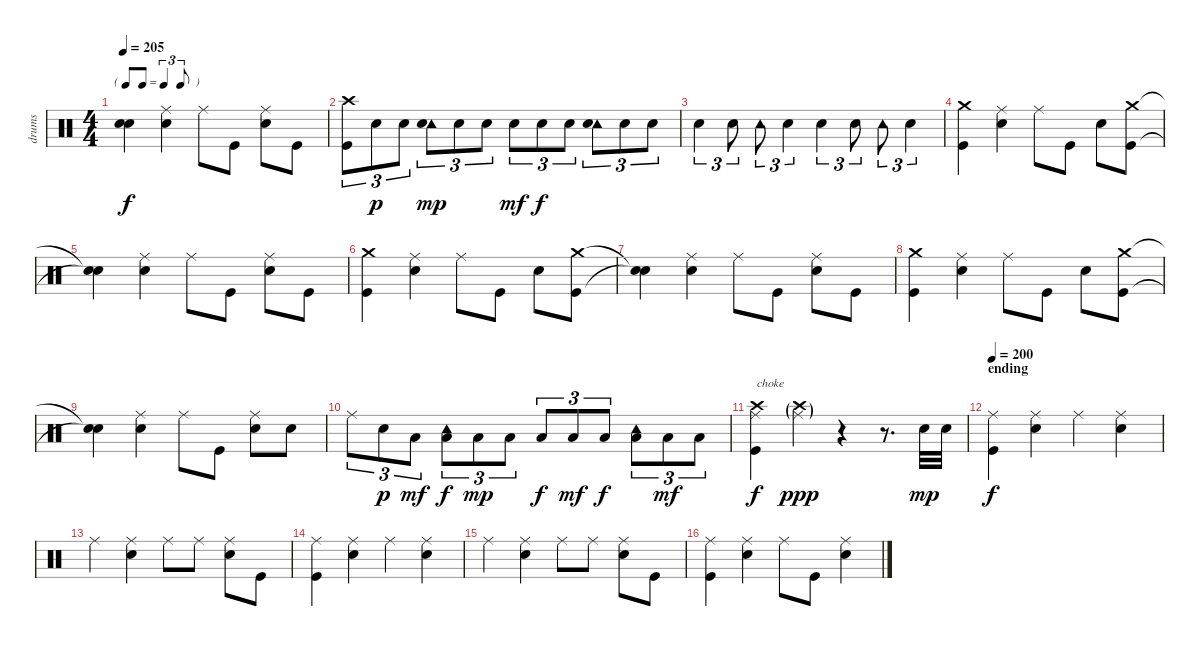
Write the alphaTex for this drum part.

\track ("drums" "drums") {instrument percussion}
\staff {score}
\articulation defaults
\ts (4 4)
\tf triplet8th
\tempo 205
\clef neutral
\ks c
("Snare (hit)"{t} "Snare (hit)"{t}).4{dy f} ("Ride (middle)" "Snare (hit) 2").4 "Ride (middle)".8 "Kick (hit)".8 ("Ride (middle)" "Snare (hit) 2").8 "Kick (hit)".8 |
("Crash high (hit)" "Kick (hit)").8{tu (3 2)} "Snare (hit) 2".8{tu (3 2) dy p} "Snare (hit) 2".8{tu (3 2)} ("Tambourine (hit)" "Snare (hit) 2").8{tu (3 2) dy mp} "Snare (hit) 2".8{tu (3 2)} "Snare (hit) 2".8{tu (3 2)} "Snare (hit) 2".8{tu (3 2) dy mf} "Snare (hit) 2".8{tu (3 2) dy f} "Snare (hit) 2".8{tu (3 2)} ("Tambourine (hit)" "Snare (hit) 2").8{tu (3 2)} "Snare (hit) 2".8{tu (3 2)} "Snare (hit) 2".8{tu (3 2)} |
"Snare (hit) 2".4{tu (3 2)} "Snare (hit) 2".8{tu (3 2)} "Tambourine (hit)".8{tu (3 2)} "Snare (hit) 2".4{tu (3 2)} "Snare (hit) 2".4{tu (3 2)} "Snare (hit) 2".8{tu (3 2)} "Tambourine (hit)".8{tu (3 2)} "Snare (hit) 2".4{tu (3 2)} |
("Crash medium (hit)" "Kick (hit)").4 ("Ride (middle)" "Snare (hit) 2").4 "Ride (middle)".8 "Kick (hit)".8 "Snare (hit) 2".8 ("Crash medium (hit)" "Kick (hit)").8 |
("Snare (hit)"{t} "Snare (hit)"{t}).4 ("Ride (middle)" "Snare (hit) 2").4 "Ride (middle)".8 "Kick (hit)".8 ("Ride (middle)" "Snare (hit) 2").8 "Kick (hit)".8 |
("Crash medium (hit)" "Kick (hit)").4 ("Ride (middle)" "Snare (hit) 2").4 "Ride (middle)".8 "Kick (hit)".8 "Snare (hit) 2".8 ("Crash medium (hit)" "Kick (hit)").8 |
("Snare (hit)"{t} "Snare (hit)"{t}).4 ("Ride (middle)" "Snare (hit) 2").4 "Ride (middle)".8 "Kick (hit)".8 ("Ride (middle)" "Snare (hit) 2").8 "Kick (hit)".8 |
("Crash medium (hit)" "Kick (hit)").4 ("Ride (middle)" "Snare (hit) 2").4 "Ride (middle)".8 "Kick (hit)".8 "Snare (hit) 2".8 ("Crash medium (hit)" "Kick (hit)").8 |
("Snare (hit)"{t} "Snare (hit)"{t}).4 ("Ride (middle)" "Snare (hit) 2").4 "Ride (middle)".8 "Kick (hit)".8 ("Ride (middle)" "Snare (hit) 2").8 "Snare (hit) 2".8 |
"Ride (middle)".8{tu (3 2)} "Snare (hit) 2".8{tu (3 2) dy p} "Low Tom (hit)".8{tu (3 2) dy mf} ("Tambourine (hit)" "Low Tom (hit)").8{tu (3 2) dy f} "Low Tom (hit)".8{tu (3 2) dy mp} "Low Tom (hit)".8{tu (3 2)} "Low Tom (hit)".8{tu (3 2) dy f} "Low Tom (hit)".8{tu (3 2) dy mf} "Low Floor Tom (hit)".8{tu (3 2) dy f} ("Tambourine (hit)" "Low Floor Tom (hit)").8{tu (3 2)} "Low Floor Tom (hit)".8{tu (3 2) dy mf} "Low Floor Tom (hit)".8{tu (3 2)} |
("Crash high (hit)" "Ride (middle)" "Kick (hit)").4{txt "choke" dy f} ("Crash high (hit)"{g} "Ride (middle)"{g}).4{dy ppp} r.4 r.8{d} "Snare (hit) 2".32{dy mp} "Snare (hit) 2".32 |
\section ("" "ending")
\tempo 200
("Ride (middle)" "Kick (hit)").4{dy f} ("Ride (middle)" "Snare (hit) 2").4 "Ride (middle)".4 ("Ride (middle)" "Snare (hit) 2").4 |
"Ride (middle)".4 ("Ride (middle)" "Snare (hit) 2").4 "Ride (middle)".8 "Ride (middle)".8 ("Ride (middle)" "Snare (hit) 2").8 "Kick (hit)".8 |
("Ride (middle)" "Kick (hit)").4 ("Ride (middle)" "Snare (hit) 2").4 "Ride (middle)".4 ("Ride (middle)" "Snare (hit) 2").4 |
"Ride (middle)".4 ("Ride (middle)" "Snare (hit) 2").4 "Ride (middle)".8 "Ride (middle)".8 ("Ride (middle)" "Snare (hit) 2").8 "Kick (hit)".8 |
("Ride (middle)" "Kick (hit)").4 ("Ride (middle)" "Snare (hit) 2").4 "Ride (middle)".8 "Kick (hit)".8 ("Ride (middle)" "Snare (hit) 2").4
